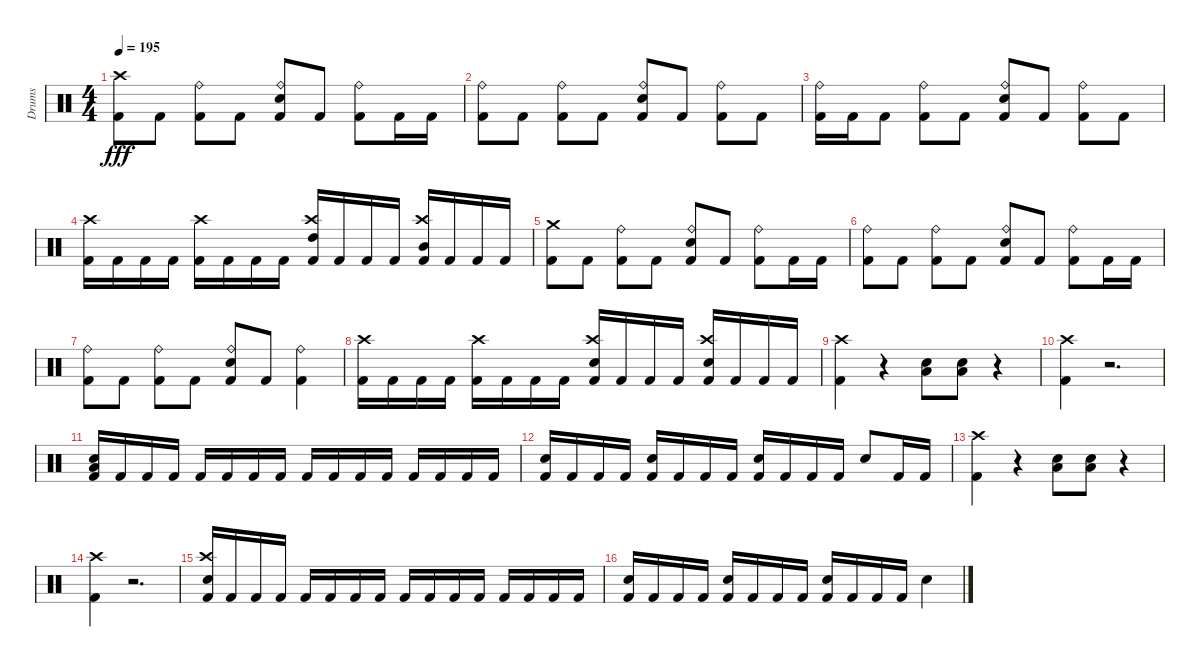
\track ("Drums" "Drums") {instrument percussion}
\staff {score}
\articulation defaults
\ts (4 4)
\tempo 195
\clef neutral
\ks c
("Kick (hit) 2" "Crash high (hit)").8{dy fff} "Kick (hit) 2".8 ("Kick (hit) 2" "Ride (bell)").8 "Kick (hit) 2".8 ("Metronome (bell)" "Kick (hit) 2" "Ride (bell)").8 "Kick (hit) 2".8 ("Kick (hit) 2" "Ride (bell)").8 "Kick (hit) 2".16 "Kick (hit) 2".16 |
("Kick (hit) 2" "Ride (bell)").8 "Kick (hit) 2".8 ("Kick (hit) 2" "Ride (bell)").8 "Kick (hit) 2".8 ("Metronome (bell)" "Kick (hit) 2" "Ride (bell)").8 "Kick (hit) 2".8 ("Kick (hit) 2" "Ride (bell)").8 "Kick (hit) 2".8 |
("Kick (hit) 2" "Ride (bell)").16 "Kick (hit) 2".16 "Kick (hit) 2".8 ("Kick (hit) 2" "Ride (bell)").8 "Kick (hit) 2".8 ("Metronome (bell)" "Kick (hit) 2" "Ride (bell)").8 "Kick (hit) 2".8 ("Kick (hit) 2" "Ride (bell)").8 "Kick (hit) 2".8 |
("Kick (hit) 2" "Crash high (hit)").16 "Kick (hit) 2".16 "Kick (hit) 2".16 "Kick (hit) 2".16 ("Kick (hit) 2" "Crash high (hit)").16 "Kick (hit) 2".16 "Kick (hit) 2".16 "Kick (hit) 2".16 ("Kick (hit) 2" "High Tom (hit)" "Crash high (hit)").16 "Kick (hit) 2".16 "Kick (hit) 2".16 "Kick (hit) 2".16 ("Kick (hit) 2" "Mid Tom (hit)" "Crash high (hit)").16 "Kick (hit) 2".16 "Kick (hit) 2".16 "Kick (hit) 2".16 |
("Kick (hit) 2" "Crash medium (hit)").8 "Kick (hit) 2".8 ("Kick (hit) 2" "Ride (bell)").8 "Kick (hit) 2".8 ("Metronome (bell)" "Kick (hit) 2" "Ride (bell)").8 "Kick (hit) 2".8 ("Kick (hit) 2" "Ride (bell)").8 "Kick (hit) 2".16 "Kick (hit) 2".16 |
("Kick (hit) 2" "Ride (bell)").8 "Kick (hit) 2".8 ("Kick (hit) 2" "Ride (bell)").8 "Kick (hit) 2".8 ("Metronome (bell)" "Kick (hit) 2" "Ride (bell)").8 "Kick (hit) 2".8 ("Kick (hit) 2" "Ride (bell)").8 "Kick (hit) 2".16 "Kick (hit) 2".16 |
("Kick (hit) 2" "Ride (bell)").8 "Kick (hit) 2".8 ("Kick (hit) 2" "Ride (bell)").8 "Kick (hit) 2".8 ("Metronome (bell)" "Kick (hit) 2" "Ride (bell)").8 "Kick (hit) 2".8 ("Kick (hit) 2" "Ride (bell)").4 |
("Kick (hit) 2" "Crash high (hit)").16 "Kick (hit) 2".16 "Kick (hit) 2".16 "Kick (hit) 2".16 ("Kick (hit) 2" "Crash high (hit)").16 "Kick (hit) 2".16 "Kick (hit) 2".16 "Kick (hit) 2".16 ("Metronome (bell)" "Kick (hit) 2" "Crash high (hit)").16 "Kick (hit) 2".16 "Kick (hit) 2".16 "Kick (hit) 2".16 ("Metronome (bell)" "Kick (hit) 2" "Crash high (hit)").16 "Kick (hit) 2".16 "Kick (hit) 2".16 "Kick (hit) 2".16 |
("Kick (hit) 2" "Crash high (hit)").4 r.4 ("Metronome (bell)" "Low Tom (hit)").8 ("Metronome (bell)" "Low Tom (hit)").8 r.4 |
("Kick (hit) 2" "Crash high (hit)").4 r.2{d} |
("Metronome (bell)" "Kick (hit) 2" "Low Tom (hit)").16 "Kick (hit) 2".16 "Kick (hit) 2".16 "Kick (hit) 2".16 "Kick (hit) 2".16 "Kick (hit) 2".16 "Kick (hit) 2".16 "Kick (hit) 2".16 "Kick (hit) 2".16 "Kick (hit) 2".16 "Kick (hit) 2".16 "Kick (hit) 2".16 "Kick (hit) 2".16 "Kick (hit) 2".16 "Kick (hit) 2".16 "Kick (hit) 2".16 |
("Metronome (bell)" "Kick (hit) 2").16 "Kick (hit) 2".16 "Kick (hit) 2".16 "Kick (hit) 2".16 ("Metronome (bell)" "Kick (hit) 2").16 "Kick (hit) 2".16 "Kick (hit) 2".16 "Kick (hit) 2".16 ("Metronome (bell)" "Kick (hit) 2").16 "Kick (hit) 2".16 "Kick (hit) 2".16 "Kick (hit) 2".16 "Metronome (bell)".8 "Kick (hit) 2".16 "Kick (hit) 2".16 |
("Kick (hit) 2" "Crash high (hit)").4 r.4 ("Metronome (bell)" "Low Tom (hit)").8 ("Metronome (bell)" "Low Tom (hit)").8 r.4 |
("Kick (hit) 2" "Crash high (hit)").4 r.2{d} |
("Metronome (bell)" "Kick (hit) 2" "Crash high (hit)").16 "Kick (hit) 2".16 "Kick (hit) 2".16 "Kick (hit) 2".16 "Kick (hit) 2".16 "Kick (hit) 2".16 "Kick (hit) 2".16 "Kick (hit) 2".16 "Kick (hit) 2".16 "Kick (hit) 2".16 "Kick (hit) 2".16 "Kick (hit) 2".16 "Kick (hit) 2".16 "Kick (hit) 2".16 "Kick (hit) 2".16 "Kick (hit) 2".16 |
("Metronome (bell)" "Kick (hit) 2").16 "Kick (hit) 2".16 "Kick (hit) 2".16 "Kick (hit) 2".16 ("Metronome (bell)" "Kick (hit) 2").16 "Kick (hit) 2".16 "Kick (hit) 2".16 "Kick (hit) 2".16 ("Metronome (bell)" "Kick (hit) 2").16 "Kick (hit) 2".16 "Kick (hit) 2".16 "Kick (hit) 2".16 "Metronome (bell)".4
